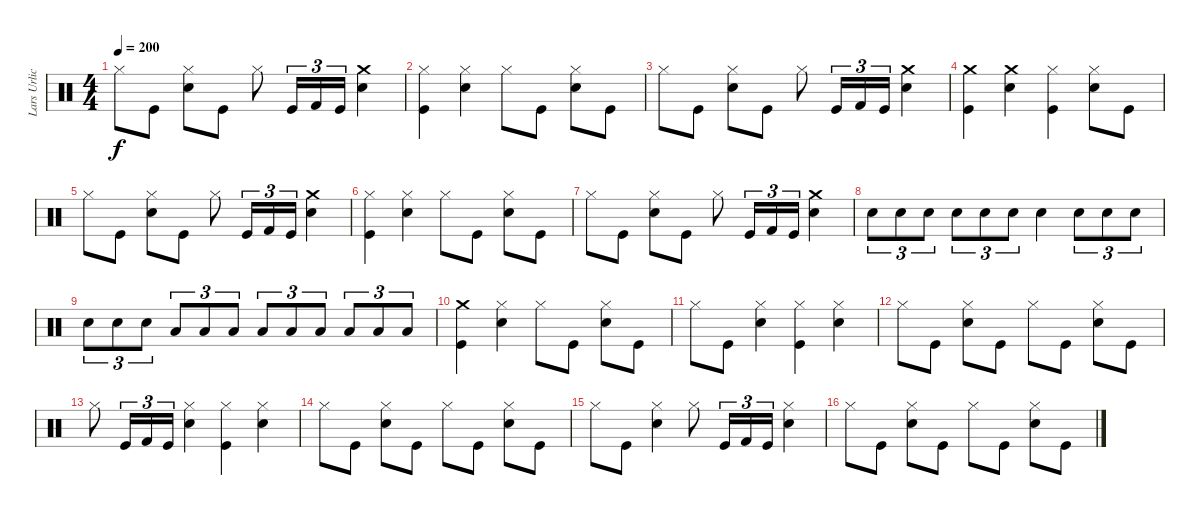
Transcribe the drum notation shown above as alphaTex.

\track ("Lars Urlich" "Lars Urlic") {instrument percussion}
\staff {score}
\articulation defaults
\ts (4 4)
\tempo 200
\clef neutral
\ks c "Hi-Hat (closed)".8{dy f} "Kick (hit)".8
("Snare (hit) 2" "Hi-Hat (closed)").8 "Kick (hit)".8 "Hi-Hat (closed)".8 "Kick (hit)".16{tu (3 2)} "Kick (hit) 2".16{tu (3 2)} "Kick (hit)".16{tu (3 2)} ("Crash medium (hit)" "Snare (hit) 2").4 |
("Hi-Hat (closed)" "Kick (hit)").4 ("Snare (hit) 2" "Hi-Hat (closed)").4 "Hi-Hat (closed)".8 "Kick (hit)".8 ("Snare (hit) 2" "Hi-Hat (closed)").8 "Kick (hit)".8 |
"Hi-Hat (closed)".8 "Kick (hit)".8 ("Snare (hit) 2" "Hi-Hat (closed)").8 "Kick (hit)".8 "Hi-Hat (closed)".8 "Kick (hit)".16{tu (3 2)} "Kick (hit) 2".16{tu (3 2)} "Kick (hit)".16{tu (3 2)} ("Crash medium (hit)" "Snare (hit) 2").4 |
("Kick (hit)" "Crash medium (hit)").4 ("Snare (hit) 2" "Crash medium (hit)").4 ("Hi-Hat (closed)" "Kick (hit)").4 ("Snare (hit) 2" "Hi-Hat (closed)").8 "Kick (hit)".8 |
"Hi-Hat (closed)".8 "Kick (hit)".8 ("Snare (hit) 2" "Hi-Hat (closed)").8 "Kick (hit)".8 "Hi-Hat (closed)".8 "Kick (hit)".16{tu (3 2)} "Kick (hit) 2".16{tu (3 2)} "Kick (hit)".16{tu (3 2)} ("Crash medium (hit)" "Snare (hit) 2").4 |
("Hi-Hat (closed)" "Kick (hit)").4 ("Snare (hit) 2" "Hi-Hat (closed)").4 "Hi-Hat (closed)".8 "Kick (hit)".8 ("Snare (hit) 2" "Hi-Hat (closed)").8 "Kick (hit)".8 |
"Hi-Hat (closed)".8 "Kick (hit)".8 ("Snare (hit) 2" "Hi-Hat (closed)").8 "Kick (hit)".8 "Hi-Hat (closed)".8 "Kick (hit)".16{tu (3 2)} "Kick (hit) 2".16{tu (3 2)} "Kick (hit)".16{tu (3 2)} ("Crash medium (hit)" "Snare (hit) 2").4 |
"Snare (hit) 2".8{tu (3 2)} "Snare (hit) 2".8{tu (3 2)} "Snare (hit) 2".8{tu (3 2)} "Snare (hit) 2".8{tu (3 2)} "Snare (hit) 2".8{tu (3 2)} "Snare (hit) 2".8{tu (3 2)} "Snare (hit) 2".4 "Snare (hit) 2".8{tu (3 2)} "Snare (hit) 2".8{tu (3 2)} "Snare (hit) 2".8{tu (3 2)} |
"Snare (hit) 2".8{tu (3 2)} "Snare (hit) 2".8{tu (3 2)} "Snare (hit) 2".8{tu (3 2)} "Low Tom (hit)".8{tu (3 2)} "Low Tom (hit)".8{tu (3 2)} "Low Tom (hit)".8{tu (3 2)} "Low Tom (hit)".8{tu (3 2)} "Low Tom (hit)".8{tu (3 2)} "Low Tom (hit)".8{tu (3 2)} "Low Tom (hit)".8{tu (3 2)} "Low Tom (hit)".8{tu (3 2)} "Low Tom (hit)".8{tu (3 2)} |
("Crash medium (hit)" "Kick (hit)").4 ("Hi-Hat (closed)" "Snare (hit) 2").4 "Hi-Hat (closed)".8 "Kick (hit)".8 ("Snare (hit) 2" "Hi-Hat (closed)").8 "Kick (hit)".8 |
"Hi-Hat (closed)".8 "Kick (hit)".8 ("Snare (hit) 2" "Hi-Hat (closed)").4 ("Hi-Hat (closed)" "Kick (hit)").4 ("Snare (hit) 2" "Hi-Hat (closed)").4 |
"Hi-Hat (closed)".8 "Kick (hit)".8 ("Snare (hit) 2" "Hi-Hat (closed)").8 "Kick (hit)".8 "Hi-Hat (closed)".8 "Kick (hit)".8 ("Snare (hit) 2" "Hi-Hat (closed)").8 "Kick (hit)".8 |
"Hi-Hat (closed)".8 "Kick (hit)".16{tu (3 2)} "Kick (hit) 2".16{tu (3 2)} "Kick (hit)".16{tu (3 2)} ("Snare (hit) 2" "Hi-Hat (closed)").4 ("Kick (hit)" "Hi-Hat (closed)").4 ("Hi-Hat (closed)" "Snare (hit) 2").4 |
"Hi-Hat (closed)".8 "Kick (hit)".8 ("Snare (hit) 2" "Hi-Hat (closed)").8 "Kick (hit)".8 "Hi-Hat (closed)".8 "Kick (hit)".8 ("Snare (hit) 2" "Hi-Hat (closed)").8 "Kick (hit)".8 |
"Hi-Hat (closed)".8 "Kick (hit)".8 ("Snare (hit) 2" "Hi-Hat (closed)").4 "Hi-Hat (closed)".8 "Kick (hit)".16{tu (3 2)} "Kick (hit) 2".16{tu (3 2)} "Kick (hit)".16{tu (3 2)} ("Snare (hit) 2" "Hi-Hat (closed)").4 |
"Hi-Hat (closed)".8 "Kick (hit)".8 ("Snare (hit) 2" "Hi-Hat (closed)").8 "Kick (hit)".8 "Hi-Hat (closed)".8 "Kick (hit)".8 ("Snare (hit) 2" "Hi-Hat (closed)").8 "Kick (hit)".8
